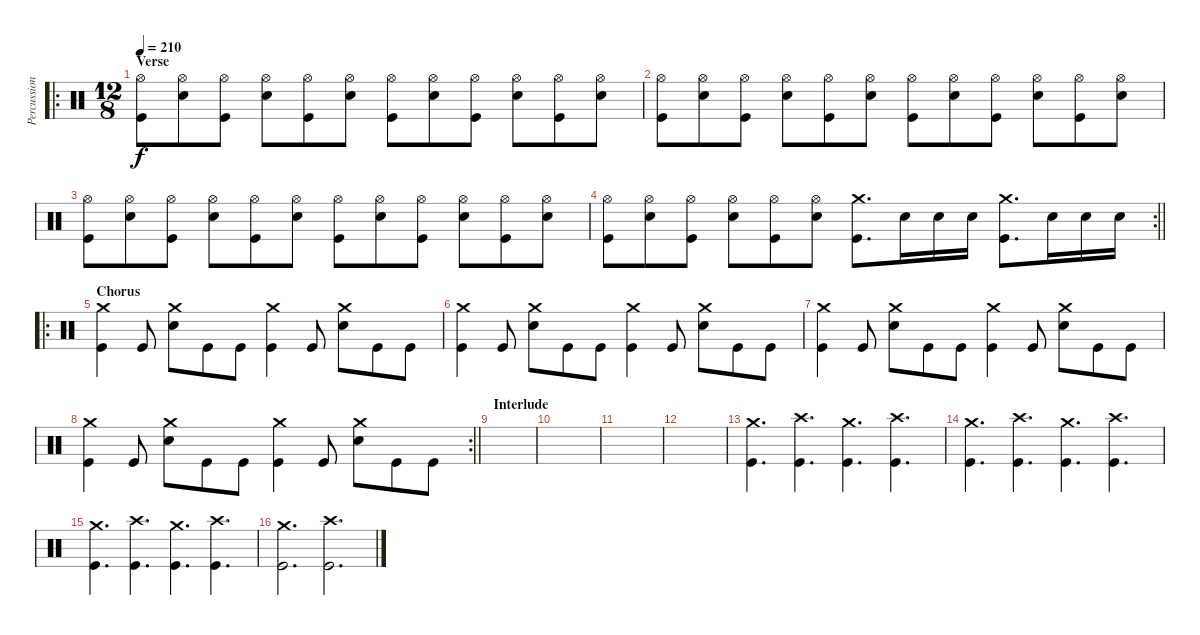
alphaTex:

\track ("Percussion" "Percussion") {instrument percussion}
\staff {score}
\articulation defaults
\ro
\ts (12 8)
\section ("" "Verse")
\tempo 210
\clef neutral
\ks c
("Hi-Hat (open)" "Kick (hit)").8{dy f} ("Hi-Hat (open)" "Snare (hit) 2").8 ("Hi-Hat (open)" "Kick (hit)").8 ("Hi-Hat (open)" "Snare (hit) 2").8 ("Hi-Hat (open)" "Kick (hit)").8 ("Hi-Hat (open)" "Snare (hit) 2").8 ("Hi-Hat (open)" "Kick (hit)").8 ("Hi-Hat (open)" "Snare (hit) 2").8 ("Hi-Hat (open)" "Kick (hit)").8 ("Hi-Hat (open)" "Snare (hit) 2").8 ("Hi-Hat (open)" "Kick (hit)").8 ("Hi-Hat (open)" "Snare (hit) 2").8 |
("Hi-Hat (open)" "Kick (hit)").8 ("Hi-Hat (open)" "Snare (hit) 2").8 ("Hi-Hat (open)" "Kick (hit)").8 ("Hi-Hat (open)" "Snare (hit) 2").8 ("Hi-Hat (open)" "Kick (hit)").8 ("Hi-Hat (open)" "Snare (hit) 2").8 ("Hi-Hat (open)" "Kick (hit)").8 ("Hi-Hat (open)" "Snare (hit) 2").8 ("Hi-Hat (open)" "Kick (hit)").8 ("Hi-Hat (open)" "Snare (hit) 2").8 ("Hi-Hat (open)" "Kick (hit)").8 ("Hi-Hat (open)" "Snare (hit) 2").8 |
("Hi-Hat (open)" "Kick (hit)").8 ("Hi-Hat (open)" "Snare (hit) 2").8 ("Hi-Hat (open)" "Kick (hit)").8 ("Hi-Hat (open)" "Snare (hit) 2").8 ("Hi-Hat (open)" "Kick (hit)").8 ("Hi-Hat (open)" "Snare (hit) 2").8 ("Hi-Hat (open)" "Kick (hit)").8 ("Hi-Hat (open)" "Snare (hit) 2").8 ("Hi-Hat (open)" "Kick (hit)").8 ("Hi-Hat (open)" "Snare (hit) 2").8 ("Hi-Hat (open)" "Kick (hit)").8 ("Hi-Hat (open)" "Snare (hit) 2").8 |
\rc 2
\barLineRight lightlight
("Hi-Hat (open)" "Kick (hit)").8 ("Hi-Hat (open)" "Snare (hit) 2").8 ("Hi-Hat (open)" "Kick (hit)").8 ("Hi-Hat (open)" "Snare (hit) 2").8 ("Hi-Hat (open)" "Kick (hit)").8 ("Hi-Hat (open)" "Snare (hit) 2").8 ("Crash medium (hit)" "Kick (hit)").8{d} "Snare (hit) 2".16 "Snare (hit) 2".16 "Snare (hit) 2".16 ("Crash medium (hit)" "Kick (hit)").8{d} "Snare (hit) 2".16 "Snare (hit) 2".16 "Snare (hit) 2".16 |
\ro
\section ("" "Chorus")
("Crash medium (hit)" "Kick (hit)").4 "Kick (hit)".8 ("Crash medium (hit)" "Snare (hit) 2").8 "Kick (hit)".8 "Kick (hit)".8 ("Crash medium (hit)" "Kick (hit)").4 "Kick (hit)".8 ("Crash medium (hit)" "Snare (hit) 2").8 "Kick (hit)".8 "Kick (hit)".8 |
("Crash medium (hit)" "Kick (hit)").4 "Kick (hit)".8 ("Crash medium (hit)" "Snare (hit) 2").8 "Kick (hit)".8 "Kick (hit)".8 ("Crash medium (hit)" "Kick (hit)").4 "Kick (hit)".8 ("Crash medium (hit)" "Snare (hit) 2").8 "Kick (hit)".8 "Kick (hit)".8 |
("Crash medium (hit)" "Kick (hit)").4 "Kick (hit)".8 ("Crash medium (hit)" "Snare (hit) 2").8 "Kick (hit)".8 "Kick (hit)".8 ("Crash medium (hit)" "Kick (hit)").4 "Kick (hit)".8 ("Crash medium (hit)" "Snare (hit) 2").8 "Kick (hit)".8 "Kick (hit)".8 |
\rc 2
\barLineRight lightlight
("Crash medium (hit)" "Kick (hit)").4 "Kick (hit)".8 ("Crash medium (hit)" "Snare (hit) 2").8 "Kick (hit)".8 "Kick (hit)".8 ("Crash medium (hit)" "Kick (hit)").4 "Kick (hit)".8 ("Crash medium (hit)" "Snare (hit) 2").8 "Kick (hit)".8 "Kick (hit)".8 |
\section ("" "Interlude")
|
|
|
|
("Crash medium (hit)" "Kick (hit)").4{d} ("Crash high (hit)" "Kick (hit)").4{d} ("Crash medium (hit)" "Kick (hit)").4{d} ("Crash high (hit)" "Kick (hit)").4{d} |
("Crash medium (hit)" "Kick (hit)").4{d} ("Crash high (hit)" "Kick (hit)").4{d} ("Crash medium (hit)" "Kick (hit)").4{d} ("Crash high (hit)" "Kick (hit)").4{d} |
("Crash medium (hit)" "Kick (hit)").4{d} ("Crash high (hit)" "Kick (hit)").4{d} ("Crash medium (hit)" "Kick (hit)").4{d} ("Crash high (hit)" "Kick (hit)").4{d} |
("Crash medium (hit)" "Kick (hit)").2{d} ("Crash high (hit)" "Kick (hit)").2{d}
